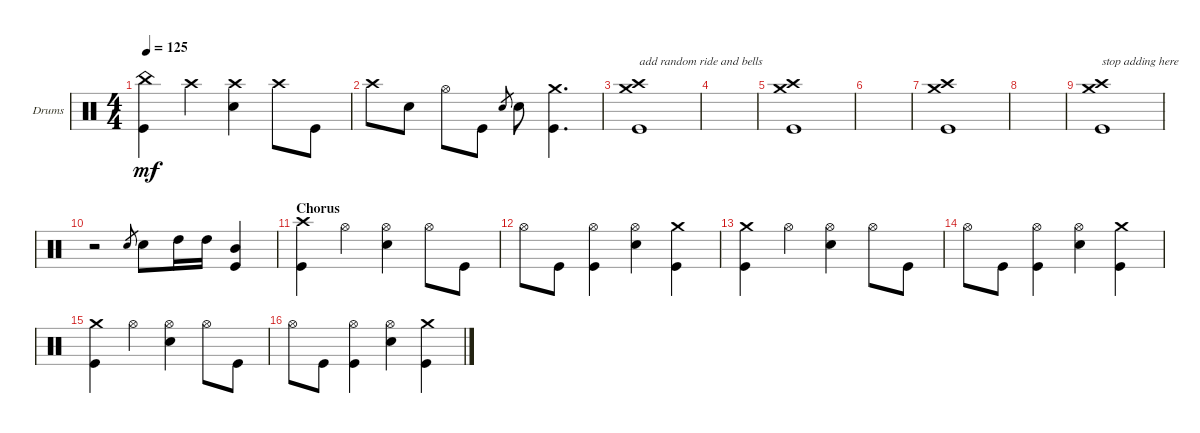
\bracketExtendMode groupsimilarinstruments
\firstSystemTrackNameOrientation horizontal
\otherSystemsTrackNameOrientation horizontal
\track ("Drums (chad ...)" "Drums") {instrument percussion}
\staff {score}
\articulation defaults
\ts (4 4)
\tempo 125
\clef neutral
\ks c
("Kick (hit)" "China (hit)").4{dy mf} "Crash high (hit)".4 ("Snare (hit) 2" "Crash high (hit)").4 "Crash high (hit)".8 "Kick (hit)".8 |
"Crash high (hit)".8 "Snare (hit) 2".8 "Hi-Hat (open)".8 "Kick (hit)".8 "Snare (hit) 2".8{gr} "Snare (hit) 2".8 ("Crash medium (hit)" "Kick (hit)").4{d} |
("Crash medium (hit)" "Crash high (hit)" "Kick (hit)").1{txt "add random ride and bells"} |
|
("Crash medium (hit)" "Crash high (hit)" "Kick (hit)").1 |
|
("Crash medium (hit)" "Crash high (hit)" "Kick (hit)").1 |
|
("Crash medium (hit)" "Crash high (hit)" "Kick (hit)").1{txt "stop adding here"} |
r.2 "Snare (hit) 2".8{gr} "Snare (hit) 2".8 "High Tom (hit)".16 "High Tom (hit)".16 ("Mid Tom (hit)" "Kick (hit)").4 |
\section ("" "Chorus")
("Kick (hit)" "Crash high (hit)").4 "Hi-Hat (open)".4 ("Hi-Hat (open)" "Snare (hit) 2").4 "Hi-Hat (open)".8 "Kick (hit)".8 |
"Hi-Hat (open)".8 "Kick (hit)".8 ("Kick (hit)" "Hi-Hat (open)").4 ("Snare (hit) 2" "Hi-Hat (open)").4 ("Crash medium (hit)" "Kick (hit)").4 |
("Kick (hit)" "Crash medium (hit)").4 "Hi-Hat (open)".4 ("Hi-Hat (open)" "Snare (hit) 2").4 "Hi-Hat (open)".8 "Kick (hit)".8 |
"Hi-Hat (open)".8 "Kick (hit)".8 ("Kick (hit)" "Hi-Hat (open)").4 ("Snare (hit) 2" "Hi-Hat (open)").4 ("Crash medium (hit)" "Kick (hit)").4 |
("Kick (hit)" "Crash medium (hit)").4 "Hi-Hat (open)".4 ("Hi-Hat (open)" "Snare (hit) 2").4 "Hi-Hat (open)".8 "Kick (hit)".8 |
"Hi-Hat (open)".8 "Kick (hit)".8 ("Kick (hit)" "Hi-Hat (open)").4 ("Snare (hit) 2" "Hi-Hat (open)").4 ("Kick (hit)" "Crash medium (hit)").4
